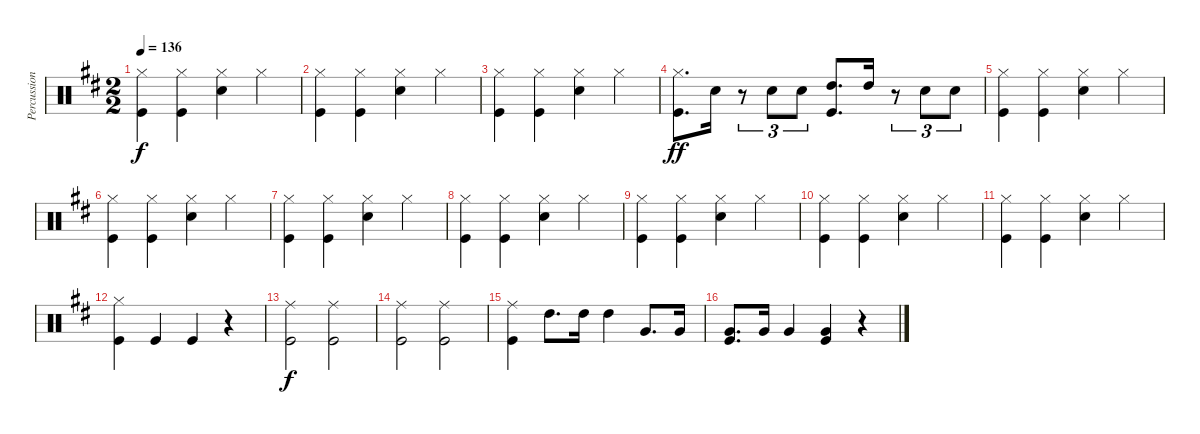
\track ("Percussion" "Percussion") {instrument percussion}
\staff {score}
\articulation defaults
\ts (2 2)
\tempo 136
\clef neutral
\ks d
("Hi-Hat (closed)" "Kick (hit)").4{dy f} ("Hi-Hat (closed)" "Kick (hit)").4 ("Snare (hit) 2" "Hi-Hat (closed)").4 "Hi-Hat (closed)".4 |
("Hi-Hat (closed)" "Kick (hit)").4 ("Hi-Hat (closed)" "Kick (hit)").4 ("Snare (hit) 2" "Hi-Hat (closed)").4 "Hi-Hat (closed)".4 |
("Hi-Hat (closed)" "Kick (hit)").4 ("Hi-Hat (closed)" "Kick (hit)").4 ("Snare (hit) 2" "Hi-Hat (closed)").4 "Hi-Hat (closed)".4 |
("Hi-Hat (closed)" "Kick (hit)").8{d dy ff} "Snare (hit) 2".16 r.8{tu (3 2)} "Snare (hit) 2".8{tu (3 2)} "Snare (hit) 2".8{tu (3 2)} ("High Tom (hit)" "Kick (hit)").8{d} "High Tom (hit)".16 r.8{tu (3 2)} "Snare (hit) 2".8{tu (3 2)} "Snare (hit) 2".8{tu (3 2)} |
("Hi-Hat (closed)" "Kick (hit)").4 ("Hi-Hat (closed)" "Kick (hit)").4 ("Hi-Hat (closed)" "Snare (hit) 2").4 "Hi-Hat (closed)".4 |
("Hi-Hat (closed)" "Kick (hit)").4 ("Hi-Hat (closed)" "Kick (hit)").4 ("Hi-Hat (closed)" "Snare (hit) 2").4 "Hi-Hat (closed)".4 |
("Hi-Hat (closed)" "Kick (hit)").4 ("Hi-Hat (closed)" "Kick (hit)").4 ("Hi-Hat (closed)" "Snare (hit) 2").4 "Hi-Hat (closed)".4 |
("Hi-Hat (closed)" "Kick (hit)").4 ("Hi-Hat (closed)" "Kick (hit)").4 ("Hi-Hat (closed)" "Snare (hit) 2").4 "Hi-Hat (closed)".4 |
("Hi-Hat (closed)" "Kick (hit)").4 ("Hi-Hat (closed)" "Kick (hit)").4 ("Hi-Hat (closed)" "Snare (hit) 2").4 "Hi-Hat (closed)".4 |
("Hi-Hat (closed)" "Kick (hit)").4 ("Hi-Hat (closed)" "Kick (hit)").4 ("Hi-Hat (closed)" "Snare (hit) 2").4 "Hi-Hat (closed)".4 |
("Hi-Hat (closed)" "Kick (hit)").4 ("Hi-Hat (closed)" "Kick (hit)").4 ("Hi-Hat (closed)" "Snare (hit) 2").4 "Hi-Hat (closed)".4 |
("Hi-Hat (closed)" "Kick (hit)").4 "Kick (hit)".4 "Kick (hit)".4 r.4 |
("Ride (middle)" "Kick (hit)").2{dy f} ("Ride (middle)" "Kick (hit)").2 |
("Ride (middle)" "Kick (hit)").2 ("Ride (middle)" "Kick (hit)").2 |
("Ride (middle)" "Kick (hit)").4 "High Tom (hit)".8{d} "High Tom (hit)".16 "High Tom (hit)".4 "Very Low Tom (hit)".8{d} "Very Low Tom (hit)".16 |
("Very Low Tom (hit)" "Kick (hit)").8{d} "Very Low Tom (hit)".16 "Very Low Tom (hit)".4 ("Very Low Tom (hit)" "Kick (hit)").4 r.4
